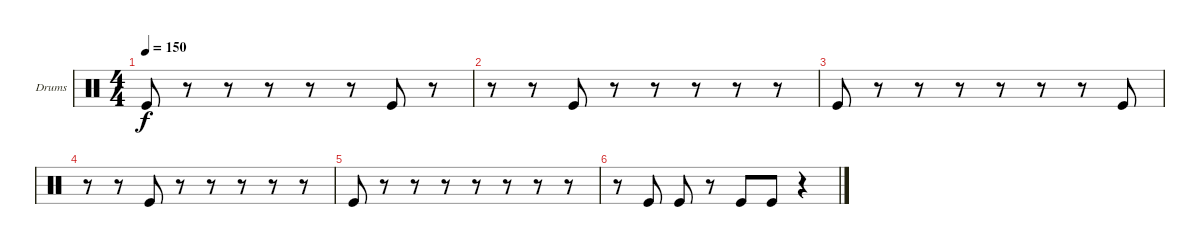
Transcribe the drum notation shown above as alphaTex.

\bracketExtendMode groupsimilarinstruments
\firstSystemTrackNameOrientation horizontal
\otherSystemsTrackNameOrientation horizontal
\track ("Drumkit Kick" "Drums ") {instrument percussion}
\staff {score}
\articulation defaults
\ts (4 4)
\tempo 150
\clef neutral
\scale
0.333333
\ks c "Kick (hit)".8{dy f}
r.8 r.8 r.8 r.8 r.8 "Kick (hit)".8 r.8 |
\scale
0.333333 r.8 r.8 "Kick (hit)".8 r.8 r.8 r.8 r.8 r.8 |
\scale
0.333333 "Kick (hit)".8 r.8 r.8 r.8 r.8 r.8 r.8 "Kick (hit)".8 |
\scale
0.333333 r.8 r.8 "Kick (hit)".8 r.8 r.8 r.8 r.8 r.8 |
\scale
0.333333 "Kick (hit)".8 r.8 r.8 r.8 r.8 r.8 r.8 r.8 |
r.8 "Kick (hit)".8 "Kick (hit)".8 r.8 "Kick (hit)".8 "Kick (hit)".8 r.4 |
\scale
0.333333 |
\scale
0.333333 |
\scale
0.333333 |
\scale
0.333333 |
\scale
0.333333 |
\scale
0.333333
